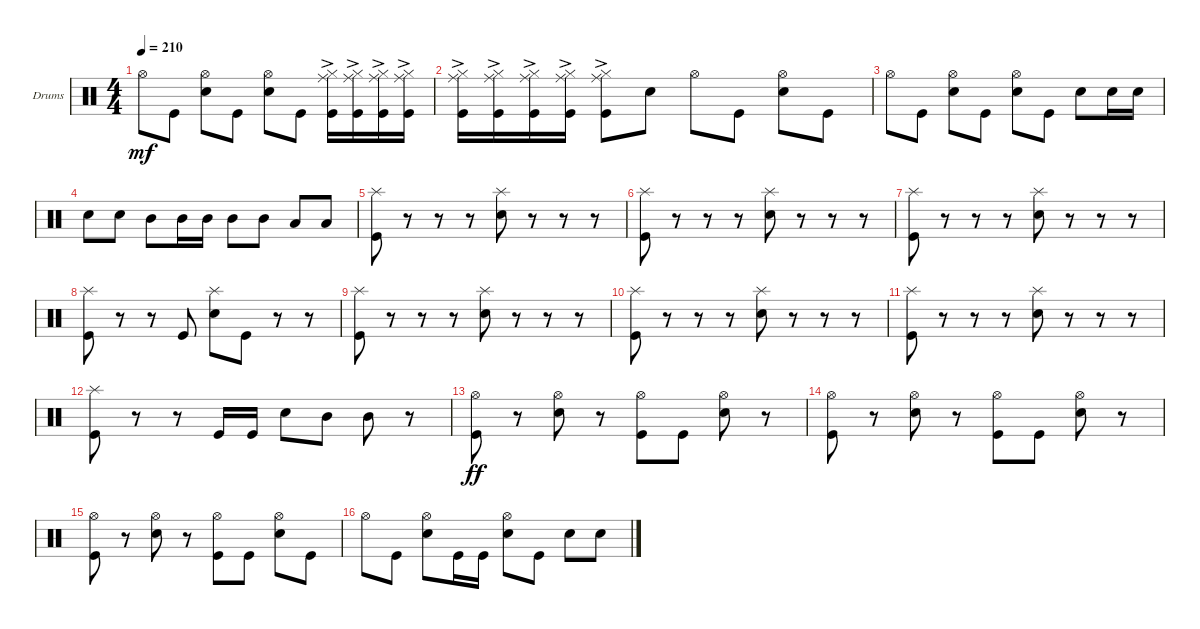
\bracketExtendMode groupsimilarinstruments
\firstSystemTrackNameOrientation horizontal
\otherSystemsTrackNameOrientation horizontal
\track ("Drumkit" "Drums") {instrument percussion}
\staff {score}
\articulation defaults
\ts (4 4)
\tempo 210
\clef neutral
\ks c "Hi-Hat (open)".8{dy mf} "Kick (hit)".8
("Snare (hit) 2" "Hi-Hat (open)").8 "Kick (hit)".8 ("Snare (hit) 2" "Hi-Hat (open)").8 "Kick (hit)".8 ("Kick (hit)" "Hi-Hat (closed)"{ac} "Ride (middle)").16 ("Kick (hit)" "Hi-Hat (closed)"{ac} "Ride (middle)").16 ("Kick (hit)" "Hi-Hat (closed)"{ac} "Ride (middle)").16 ("Kick (hit)" "Hi-Hat (closed)"{ac} "Ride (middle)").16 |
("Kick (hit)" "Hi-Hat (closed)"{ac} "Ride (middle)").16 ("Kick (hit)" "Hi-Hat (closed)"{ac} "Ride (middle)").16 ("Kick (hit)" "Hi-Hat (closed)"{ac} "Ride (middle)").16 ("Kick (hit)" "Hi-Hat (closed)"{ac} "Ride (middle)").16 ("Kick (hit)" "Hi-Hat (closed)"{ac} "Ride (middle)").8 "Snare (hit) 2".8 "Hi-Hat (open)".8 "Kick (hit)".8 ("Snare (hit) 2" "Hi-Hat (open)").8 "Kick (hit)".8 |
"Hi-Hat (open)".8 "Kick (hit)".8 ("Snare (hit) 2" "Hi-Hat (open)").8 "Kick (hit)".8 ("Snare (hit) 2" "Hi-Hat (open)").8 "Kick (hit)".8 "Snare (hit) 2".8 "Snare (hit) 2".16 "Snare (hit) 2".16 |
"Snare (hit) 2".8 "Snare (hit) 2".8 "Mid Tom (hit)".8 "Mid Tom (hit)".16 "Mid Tom (hit)".16 "Mid Tom (hit)".8 "Mid Tom (hit)".8 "Low Tom (hit)".8 "Low Tom (hit)".8 |
("Kick (hit)" "Splash (hit)").8 r.8 r.8 r.8 ("Snare (hit) 2" "Splash (hit)").8 r.8 r.8 r.8 |
("Kick (hit)" "Splash (hit)").8 r.8 r.8 r.8 ("Snare (hit) 2" "Splash (hit)").8 r.8 r.8 r.8 |
("Kick (hit)" "Splash (hit)").8 r.8 r.8 r.8 ("Snare (hit) 2" "Splash (hit)").8 r.8 r.8 r.8 |
("Kick (hit)" "Splash (hit)").8 r.8 r.8 "Kick (hit)".8 ("Snare (hit) 2" "Splash (hit)").8 "Kick (hit)".8 r.8 r.8 |
("Kick (hit)" "Splash (hit)").8 r.8 r.8 r.8 ("Snare (hit) 2" "Splash (hit)").8 r.8 r.8 r.8 |
("Kick (hit)" "Splash (hit)").8 r.8 r.8 r.8 ("Snare (hit) 2" "Splash (hit)").8 r.8 r.8 r.8 |
("Kick (hit)" "Splash (hit)").8 r.8 r.8 r.8 ("Snare (hit) 2" "Splash (hit)").8 r.8 r.8 r.8 |
("Kick (hit)" "Splash (hit)").8 r.8 r.8 "Kick (hit)".16 "Kick (hit)".16 "Snare (hit) 2".8 "Mid Tom (hit)".8 "Mid Tom (hit)".8 r.8 |
("Kick (hit)" "Hi-Hat (open)").8{dy ff} r.8 ("Snare (hit) 2" "Hi-Hat (open)").8 r.8 ("Kick (hit)" "Hi-Hat (open)").8 "Kick (hit)".8 ("Snare (hit) 2" "Hi-Hat (open)").8 r.8 |
("Kick (hit)" "Hi-Hat (open)").8 r.8 ("Snare (hit) 2" "Hi-Hat (open)").8 r.8 ("Kick (hit)" "Hi-Hat (open)").8 "Kick (hit)".8 ("Snare (hit) 2" "Hi-Hat (open)").8 r.8 |
("Kick (hit)" "Hi-Hat (open)").8 r.8 ("Snare (hit) 2" "Hi-Hat (open)").8 r.8 ("Kick (hit)" "Hi-Hat (open)").8 "Kick (hit)".8 ("Snare (hit) 2" "Hi-Hat (open)").8 "Kick (hit)".8 |
"Hi-Hat (open)".8 "Kick (hit)".8 ("Snare (hit) 2" "Hi-Hat (open)").8 "Kick (hit)".16 "Kick (hit)".16 ("Snare (hit) 2" "Hi-Hat (open)").8 "Kick (hit)".8 "Snare (hit) 2".8 "Snare (hit) 2".8
